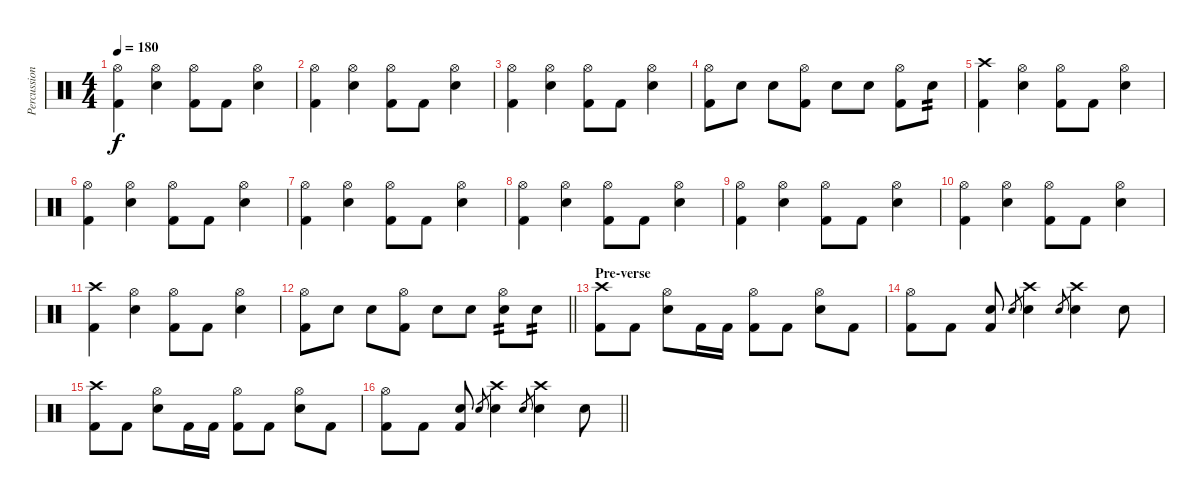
\track ("Percussion" "Percussion") {instrument percussion}
\staff {score}
\articulation defaults
\ts (4 4)
\tempo 180
\clef neutral
\ks c
("Hi-Hat (open)" "Kick (hit) 2").4{dy f} ("Hi-Hat (open)" "Snare (hit) 2").4 ("Hi-Hat (open)" "Kick (hit) 2").8 "Kick (hit) 2".8 ("Hi-Hat (open)" "Snare (hit) 2").4 |
("Hi-Hat (open)" "Kick (hit) 2").4 ("Hi-Hat (open)" "Snare (hit) 2").4 ("Hi-Hat (open)" "Kick (hit) 2").8 "Kick (hit) 2".8 ("Hi-Hat (open)" "Snare (hit) 2").4 |
("Hi-Hat (open)" "Kick (hit) 2").4 ("Hi-Hat (open)" "Snare (hit) 2").4 ("Hi-Hat (open)" "Kick (hit) 2").8 "Kick (hit) 2".8 ("Hi-Hat (open)" "Snare (hit) 2").4 |
("Hi-Hat (open)" "Kick (hit) 2").8 "Snare (hit) 2".8 "Snare (hit) 2".8 ("Hi-Hat (open)" "Kick (hit) 2").8 "Snare (hit) 2".8 "Snare (hit) 2".8 ("Hi-Hat (open)" "Kick (hit) 2").8 "Snare (hit) 2".8{tp 2} |
("Crash high (hit)" "Kick (hit) 2").4 ("Hi-Hat (open)" "Snare (hit) 2").4 ("Hi-Hat (open)" "Kick (hit) 2").8 "Kick (hit) 2".8 ("Hi-Hat (open)" "Snare (hit) 2").4 |
("Hi-Hat (open)" "Kick (hit) 2").4 ("Hi-Hat (open)" "Snare (hit) 2").4 ("Hi-Hat (open)" "Kick (hit) 2").8 "Kick (hit) 2".8 ("Hi-Hat (open)" "Snare (hit) 2").4 |
("Hi-Hat (open)" "Kick (hit) 2").4 ("Hi-Hat (open)" "Snare (hit) 2").4 ("Hi-Hat (open)" "Kick (hit) 2").8 "Kick (hit) 2".8 ("Hi-Hat (open)" "Snare (hit) 2").4 |
("Hi-Hat (open)" "Kick (hit) 2").4 ("Hi-Hat (open)" "Snare (hit) 2").4 ("Hi-Hat (open)" "Kick (hit) 2").8 "Kick (hit) 2".8 ("Hi-Hat (open)" "Snare (hit) 2").4 |
("Hi-Hat (open)" "Kick (hit) 2").4 ("Hi-Hat (open)" "Snare (hit) 2").4 ("Hi-Hat (open)" "Kick (hit) 2").8 "Kick (hit) 2".8 ("Hi-Hat (open)" "Snare (hit) 2").4 |
("Hi-Hat (open)" "Kick (hit) 2").4 ("Hi-Hat (open)" "Snare (hit) 2").4 ("Hi-Hat (open)" "Kick (hit) 2").8 "Kick (hit) 2".8 ("Hi-Hat (open)" "Snare (hit) 2").4 |
("Crash high (hit)" "Kick (hit) 2").4 ("Hi-Hat (open)" "Snare (hit) 2").4 ("Hi-Hat (open)" "Kick (hit) 2").8 "Kick (hit) 2".8 ("Hi-Hat (open)" "Snare (hit) 2").4 |
\barLineRight lightlight
("Hi-Hat (open)" "Kick (hit) 2").8 "Snare (hit) 2".8 "Snare (hit) 2".8 ("Hi-Hat (open)" "Kick (hit) 2").8 "Snare (hit) 2".8 "Snare (hit) 2".8 ("Hi-Hat (open)" "Snare (hit) 2").8{tp 2} "Snare (hit) 2".8{tp 2} |
\section ("" "Pre-verse")
("Crash high (hit)" "Kick (hit) 2").8 "Kick (hit) 2".8 ("Hi-Hat (open)" "Snare (hit) 2").8 "Kick (hit) 2".16 "Kick (hit) 2".16 ("Hi-Hat (open)" "Kick (hit) 2").8 "Kick (hit) 2".8 ("Hi-Hat (open)" "Snare (hit) 2").8 "Kick (hit) 2".8 |
("Hi-Hat (open)" "Kick (hit) 2").8 "Kick (hit) 2".8 ("Snare (hit) 2" "Kick (hit) 2").8 "Snare (hit) 2".8{gr} ("Crash high (hit)" "Snare (hit) 2").4 "Snare (hit) 2".8{gr} ("Crash high (hit)" "Snare (hit) 2").4 "Snare (hit) 2".8 |
("Crash high (hit)" "Kick (hit) 2").8 "Kick (hit) 2".8 ("Hi-Hat (open)" "Snare (hit) 2").8 "Kick (hit) 2".16 "Kick (hit) 2".16 ("Hi-Hat (open)" "Kick (hit) 2").8 "Kick (hit) 2".8 ("Hi-Hat (open)" "Snare (hit) 2").8 "Kick (hit) 2".8 |
\barLineRight lightlight
("Hi-Hat (open)" "Kick (hit) 2").8 "Kick (hit) 2".8 ("Snare (hit) 2" "Kick (hit) 2").8 "Snare (hit) 2".8{gr} ("Crash high (hit)" "Snare (hit) 2").4 "Snare (hit) 2".8{gr} ("Crash high (hit)" "Snare (hit) 2").4 "Snare (hit) 2".8
